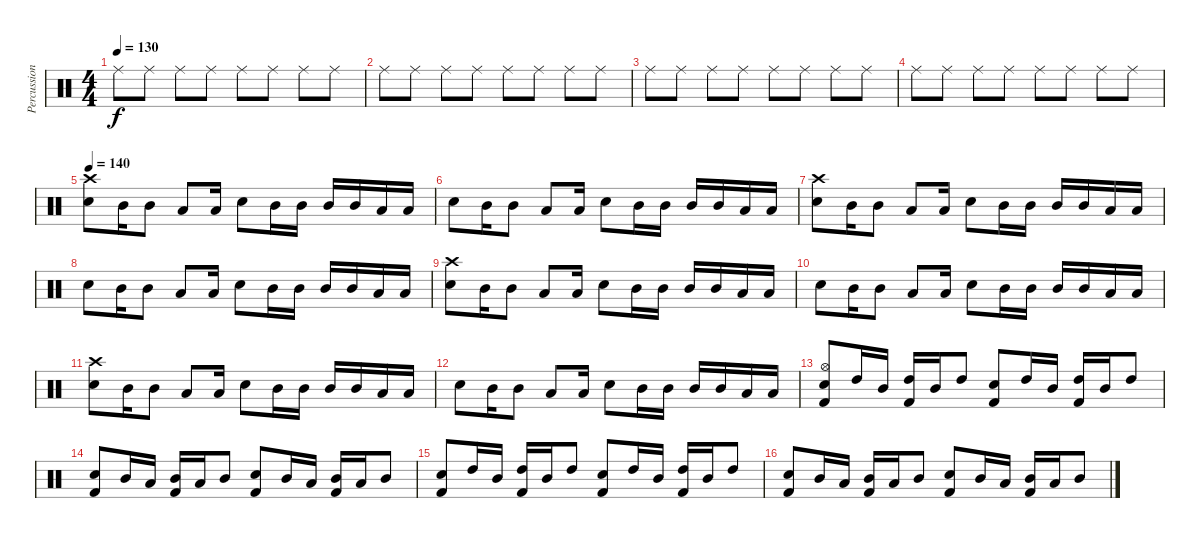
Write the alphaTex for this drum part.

\track ("Percussion" "Percussion") {instrument percussion}
\staff {score}
\articulation defaults
\ts (4 4)
\tempo 130
\clef neutral
\ks c "Ride (middle)".8{dy f} "Ride (middle)".8 "Ride (middle)".8 "Ride (middle)".8 "Ride (middle)".8 "Ride (middle)".8 "Ride (middle)".8 "Ride (middle)".8
|
"Ride (middle)".8 "Ride (middle)".8 "Ride (middle)".8 "Ride (middle)".8 "Ride (middle)".8 "Ride (middle)".8 "Ride (middle)".8 "Ride (middle)".8 |
"Ride (middle)".8 "Ride (middle)".8 "Ride (middle)".8 "Ride (middle)".8 "Ride (middle)".8 "Ride (middle)".8 "Ride (middle)".8 "Ride (middle)".8 |
"Ride (middle)".8 "Ride (middle)".8 "Ride (middle)".8 "Ride (middle)".8 "Ride (middle)".8 "Ride (middle)".8 "Ride (middle)".8 "Ride (middle)".8 |
\tempo 140
("Crash high (hit)" "Snare (hit) 2").8 "Mid Tom (hit)".16 "Mid Tom (hit)".8 "Low Tom (hit)".8 "Low Tom (hit)".16 "Snare (hit) 2".8 "Mid Tom (hit)".16 "Mid Tom (hit)".16 "Mid Tom (hit)".16 "Mid Tom (hit)".16 "Low Tom (hit)".16 "Low Tom (hit)".16 |
"Snare (hit) 2".8 "Mid Tom (hit)".16 "Mid Tom (hit)".8 "Low Tom (hit)".8 "Low Tom (hit)".16 "Snare (hit) 2".8 "Mid Tom (hit)".16 "Mid Tom (hit)".16 "Mid Tom (hit)".16 "Mid Tom (hit)".16 "Low Tom (hit)".16 "Low Tom (hit)".16 |
("Crash high (hit)" "Snare (hit) 2").8 "Mid Tom (hit)".16 "Mid Tom (hit)".8 "Low Tom (hit)".8 "Low Tom (hit)".16 "Snare (hit) 2".8 "Mid Tom (hit)".16 "Mid Tom (hit)".16 "Mid Tom (hit)".16 "Mid Tom (hit)".16 "Low Tom (hit)".16 "Low Tom (hit)".16 |
"Snare (hit) 2".8 "Mid Tom (hit)".16 "Mid Tom (hit)".8 "Low Tom (hit)".8 "Low Tom (hit)".16 "Snare (hit) 2".8 "Mid Tom (hit)".16 "Mid Tom (hit)".16 "Mid Tom (hit)".16 "Mid Tom (hit)".16 "Low Tom (hit)".16 "Low Tom (hit)".16 |
("Crash high (hit)" "Snare (hit) 2").8 "Mid Tom (hit)".16 "Mid Tom (hit)".8 "Low Tom (hit)".8 "Low Tom (hit)".16 "Snare (hit) 2".8 "Mid Tom (hit)".16 "Mid Tom (hit)".16 "Mid Tom (hit)".16 "Mid Tom (hit)".16 "Low Tom (hit)".16 "Low Tom (hit)".16 |
"Snare (hit) 2".8 "Mid Tom (hit)".16 "Mid Tom (hit)".8 "Low Tom (hit)".8 "Low Tom (hit)".16 "Snare (hit) 2".8 "Mid Tom (hit)".16 "Mid Tom (hit)".16 "Mid Tom (hit)".16 "Mid Tom (hit)".16 "Low Tom (hit)".16 "Low Tom (hit)".16 |
("Crash high (hit)" "Snare (hit) 2").8 "Mid Tom (hit)".16 "Mid Tom (hit)".8 "Low Tom (hit)".8 "Low Tom (hit)".16 "Snare (hit) 2".8 "Mid Tom (hit)".16 "Mid Tom (hit)".16 "Mid Tom (hit)".16 "Mid Tom (hit)".16 "Low Tom (hit)".16 "Low Tom (hit)".16 |
"Snare (hit) 2".8 "Mid Tom (hit)".16 "Mid Tom (hit)".8 "Low Tom (hit)".8 "Low Tom (hit)".16 "Snare (hit) 2".8 "Mid Tom (hit)".16 "Mid Tom (hit)".16 "Mid Tom (hit)".16 "Mid Tom (hit)".16 "Low Tom (hit)".16 "Low Tom (hit)".16 |
("Hi-Hat (open)" "Snare (hit) 2" "Kick (hit) 2").8 "High Tom (hit)".16 "Mid Tom (hit)".16 ("High Tom (hit)" "Kick (hit) 2").16 "Mid Tom (hit)".16 "High Tom (hit)".8 ("Snare (hit) 2" "Kick (hit) 2").8 "High Tom (hit)".16 "Mid Tom (hit)".16 ("High Tom (hit)" "Kick (hit) 2").16 "Mid Tom (hit)".16 "High Tom (hit)".8 |
("Snare (hit) 2" "Kick (hit) 2").8 "Mid Tom (hit)".16 "Low Tom (hit)".16 ("Mid Tom (hit)" "Kick (hit) 2").16 "Low Tom (hit)".16 "Mid Tom (hit)".8 ("Snare (hit) 2" "Kick (hit) 2").8 "Mid Tom (hit)".16 "Low Tom (hit)".16 ("Mid Tom (hit)" "Kick (hit) 2").16 "Low Tom (hit)".16 "Mid Tom (hit)".8 |
("Snare (hit) 2" "Kick (hit) 2").8 "High Tom (hit)".16 "Mid Tom (hit)".16 ("High Tom (hit)" "Kick (hit) 2").16 "Mid Tom (hit)".16 "High Tom (hit)".8 ("Snare (hit) 2" "Kick (hit) 2").8 "High Tom (hit)".16 "Mid Tom (hit)".16 ("High Tom (hit)" "Kick (hit) 2").16 "Mid Tom (hit)".16 "High Tom (hit)".8 |
("Snare (hit) 2" "Kick (hit) 2").8 "Mid Tom (hit)".16 "Low Tom (hit)".16 ("Mid Tom (hit)" "Kick (hit) 2").16 "Low Tom (hit)".16 "Mid Tom (hit)".8 ("Snare (hit) 2" "Kick (hit) 2").8 "Mid Tom (hit)".16 "Low Tom (hit)".16 ("Mid Tom (hit)" "Kick (hit) 2").16 "Low Tom (hit)".16 "Mid Tom (hit)".8
